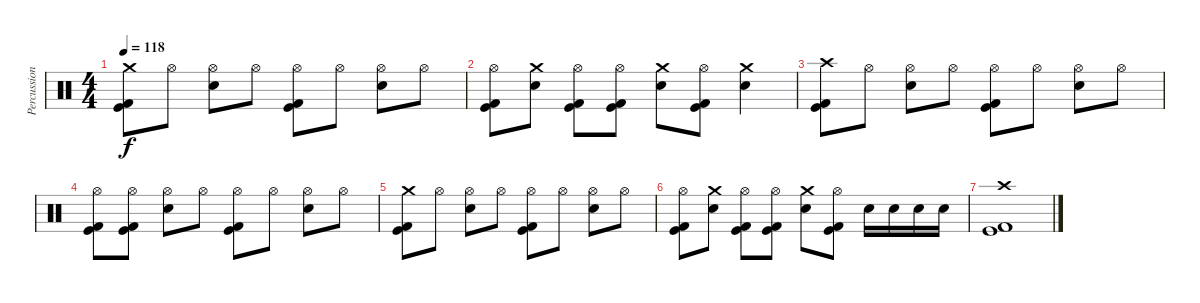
\track ("Percussion" "Percussion") {instrument percussion}
\staff {score}
\articulation defaults
\ts (4 4)
\tempo 118
\clef neutral
\ks c
("Crash medium (hit)" "Kick (hit)" "Kick (hit) 2").8{dy f} "Hi-Hat (open)".8 ("Hi-Hat (open)" "Electric Snare (hit)").8 "Hi-Hat (open)".8 ("Hi-Hat (open)" "Kick (hit)" "Kick (hit) 2").8 "Hi-Hat (open)".8 ("Hi-Hat (open)" "Electric Snare (hit)").8 "Hi-Hat (open)".8 |
("Hi-Hat (open)" "Kick (hit)" "Kick (hit) 2").8 ("Crash medium (hit)" "Electric Snare (hit)").8 ("Hi-Hat (open)" "Kick (hit)" "Kick (hit) 2").8 ("Hi-Hat (open)" "Kick (hit)" "Kick (hit) 2").8 ("Crash medium (hit)" "Electric Snare (hit)").8 ("Hi-Hat (open)" "Kick (hit)" "Kick (hit) 2").8 ("Crash medium (hit)" "Electric Snare (hit)").4 |
("Crash high (hit)" "Kick (hit)" "Kick (hit) 2").8 "Hi-Hat (open)".8 ("Hi-Hat (open)" "Electric Snare (hit)").8 "Hi-Hat (open)".8 ("Hi-Hat (open)" "Kick (hit)" "Kick (hit) 2").8 "Hi-Hat (open)".8 ("Hi-Hat (open)" "Electric Snare (hit)").8 "Hi-Hat (open)".8 |
("Hi-Hat (open)" "Kick (hit)" "Kick (hit) 2").8 ("Hi-Hat (open)" "Kick (hit)" "Kick (hit) 2").8 ("Hi-Hat (open)" "Electric Snare (hit)").8 "Hi-Hat (open)".8 ("Hi-Hat (open)" "Kick (hit)" "Kick (hit) 2").8 "Hi-Hat (open)".8 ("Hi-Hat (open)" "Electric Snare (hit)").8 "Hi-Hat (open)".8 |
("Crash medium (hit)" "Kick (hit)" "Kick (hit) 2").8 "Hi-Hat (open)".8 ("Hi-Hat (open)" "Electric Snare (hit)").8 "Hi-Hat (open)".8 ("Hi-Hat (open)" "Kick (hit)" "Kick (hit) 2").8 "Hi-Hat (open)".8 ("Hi-Hat (open)" "Electric Snare (hit)").8 "Hi-Hat (open)".8 |
("Hi-Hat (open)" "Kick (hit)" "Kick (hit) 2").8 ("Crash medium (hit)" "Electric Snare (hit)").8 ("Hi-Hat (open)" "Kick (hit)" "Kick (hit) 2").8 ("Hi-Hat (open)" "Kick (hit)" "Kick (hit) 2").8 ("Crash medium (hit)" "Electric Snare (hit)").8 ("Hi-Hat (open)" "Kick (hit)" "Kick (hit) 2").8 "Electric Snare (hit)".16 "Electric Snare (hit)".16 "Electric Snare (hit)".16 "Electric Snare (hit)".16 |
("Crash high (hit)" "Kick (hit)" "Kick (hit) 2").1
